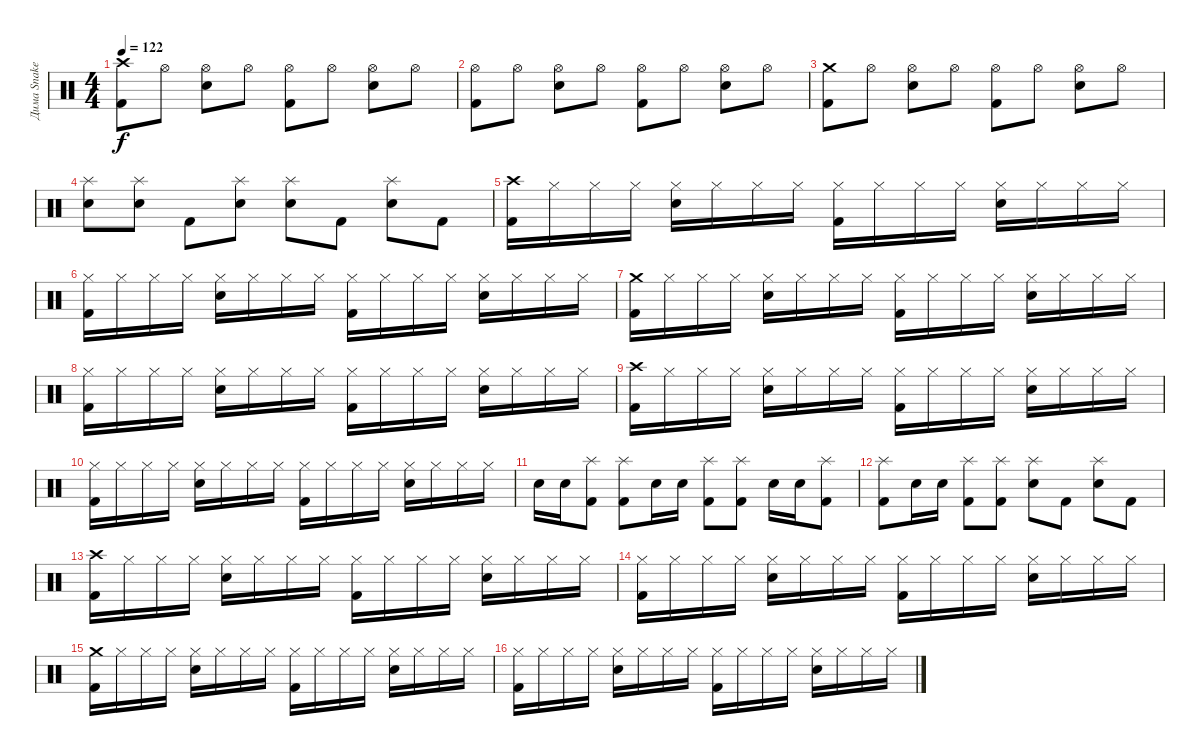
\track ("Дима Snake Хакимов" "Дима Snake") {instrument percussion}
\staff {score}
\articulation defaults
\ts (4 4)
\tempo 122
\clef neutral
\ks c
("Crash high (hit)" "Kick (hit) 2").8{dy f} "Hi-Hat (open)".8 ("Hi-Hat (open)" "Snare (hit) 2").8 "Hi-Hat (open)".8 ("Hi-Hat (open)" "Kick (hit) 2").8 "Hi-Hat (open)".8 ("Hi-Hat (open)" "Snare (hit) 2").8 "Hi-Hat (open)".8 |
("Hi-Hat (open)" "Kick (hit) 2").8 "Hi-Hat (open)".8 ("Hi-Hat (open)" "Snare (hit) 2").8 "Hi-Hat (open)".8 ("Hi-Hat (open)" "Kick (hit) 2").8 "Hi-Hat (open)".8 ("Hi-Hat (open)" "Snare (hit) 2").8 "Hi-Hat (open)".8 |
("Crash medium (hit)" "Kick (hit) 2").8 "Hi-Hat (open)".8 ("Hi-Hat (open)" "Snare (hit) 2").8 "Hi-Hat (open)".8 ("Hi-Hat (open)" "Kick (hit) 2").8 "Hi-Hat (open)".8 ("Hi-Hat (open)" "Snare (hit) 2").8 "Hi-Hat (open)".8 |
("Splash (hit)" "Snare (hit) 2").8 ("Splash (hit)" "Snare (hit) 2").8 "Kick (hit) 2".8 ("Splash (hit)" "Snare (hit) 2").8 ("Splash (hit)" "Snare (hit) 2").8 "Kick (hit) 2".8 ("Splash (hit)" "Snare (hit) 2").8 "Kick (hit) 2".8 |
("Crash high (hit)" "Kick (hit) 2").16 "Hi-Hat (closed)".16 "Hi-Hat (closed)".16 "Hi-Hat (closed)".16 ("Hi-Hat (closed)" "Snare (hit) 2").16 "Hi-Hat (closed)".16 "Hi-Hat (closed)".16 "Hi-Hat (closed)".16 ("Hi-Hat (closed)" "Kick (hit) 2").16 "Hi-Hat (closed)".16 "Hi-Hat (closed)".16 "Hi-Hat (closed)".16 ("Hi-Hat (closed)" "Snare (hit) 2").16 "Hi-Hat (closed)".16 "Hi-Hat (closed)".16 "Hi-Hat (closed)".16 |
("Hi-Hat (closed)" "Kick (hit) 2").16 "Hi-Hat (closed)".16 "Hi-Hat (closed)".16 "Hi-Hat (closed)".16 ("Hi-Hat (closed)" "Snare (hit) 2").16 "Hi-Hat (closed)".16 "Hi-Hat (closed)".16 "Hi-Hat (closed)".16 ("Hi-Hat (closed)" "Kick (hit) 2").16 "Hi-Hat (closed)".16 "Hi-Hat (closed)".16 "Hi-Hat (closed)".16 ("Hi-Hat (closed)" "Snare (hit) 2").16 "Hi-Hat (closed)".16 "Hi-Hat (closed)".16 "Hi-Hat (closed)".16 |
("Crash medium (hit)" "Kick (hit) 2").16 "Hi-Hat (closed)".16 "Hi-Hat (closed)".16 "Hi-Hat (closed)".16 ("Hi-Hat (closed)" "Snare (hit) 2").16 "Hi-Hat (closed)".16 "Hi-Hat (closed)".16 "Hi-Hat (closed)".16 ("Hi-Hat (closed)" "Kick (hit) 2").16 "Hi-Hat (closed)".16 "Hi-Hat (closed)".16 "Hi-Hat (closed)".16 ("Hi-Hat (closed)" "Snare (hit) 2").16 "Hi-Hat (closed)".16 "Hi-Hat (closed)".16 "Hi-Hat (closed)".16 |
("Hi-Hat (closed)" "Kick (hit) 2").16 "Hi-Hat (closed)".16 "Hi-Hat (closed)".16 "Hi-Hat (closed)".16 ("Hi-Hat (closed)" "Snare (hit) 2").16 "Hi-Hat (closed)".16 "Hi-Hat (closed)".16 "Hi-Hat (closed)".16 ("Hi-Hat (closed)" "Kick (hit) 2").16 "Hi-Hat (closed)".16 "Hi-Hat (closed)".16 "Hi-Hat (closed)".16 ("Hi-Hat (closed)" "Snare (hit) 2").16 "Hi-Hat (closed)".16 "Hi-Hat (closed)".16 "Hi-Hat (closed)".16 |
("Crash high (hit)" "Kick (hit) 2").16 "Hi-Hat (closed)".16 "Hi-Hat (closed)".16 "Hi-Hat (closed)".16 ("Hi-Hat (closed)" "Snare (hit) 2").16 "Hi-Hat (closed)".16 "Hi-Hat (closed)".16 "Hi-Hat (closed)".16 ("Hi-Hat (closed)" "Kick (hit) 2").16 "Hi-Hat (closed)".16 "Hi-Hat (closed)".16 "Hi-Hat (closed)".16 ("Hi-Hat (closed)" "Snare (hit) 2").16 "Hi-Hat (closed)".16 "Hi-Hat (closed)".16 "Hi-Hat (closed)".16 |
("Hi-Hat (closed)" "Kick (hit) 2").16 "Hi-Hat (closed)".16 "Hi-Hat (closed)".16 "Hi-Hat (closed)".16 ("Hi-Hat (closed)" "Snare (hit) 2").16 "Hi-Hat (closed)".16 "Hi-Hat (closed)".16 "Hi-Hat (closed)".16 ("Hi-Hat (closed)" "Kick (hit) 2").16 "Hi-Hat (closed)".16 "Hi-Hat (closed)".16 "Hi-Hat (closed)".16 ("Hi-Hat (closed)" "Snare (hit) 2").16 "Hi-Hat (closed)".16 "Hi-Hat (closed)".16 "Hi-Hat (closed)".16 |
"Snare (hit) 2".16 "Snare (hit) 2".16 ("Splash (hit)" "Kick (hit) 2").8 ("Splash (hit)" "Kick (hit) 2").8 "Snare (hit) 2".16 "Snare (hit) 2".16 ("Splash (hit)" "Kick (hit) 2").8 ("Splash (hit)" "Kick (hit) 2").8 "Snare (hit) 2".16 "Snare (hit) 2".16 ("Splash (hit)" "Kick (hit) 2").8 |
("Splash (hit)" "Kick (hit) 2").8 "Snare (hit) 2".16 "Snare (hit) 2".16 ("Splash (hit)" "Kick (hit) 2").8 ("Splash (hit)" "Kick (hit) 2").8 ("Splash (hit)" "Snare (hit) 2").8 "Kick (hit) 2".8 ("Splash (hit)" "Snare (hit) 2").8 "Kick (hit) 2".8 |
("Crash high (hit)" "Kick (hit) 2").16 "Hi-Hat (closed)".16 "Hi-Hat (closed)".16 "Hi-Hat (closed)".16 ("Hi-Hat (closed)" "Snare (hit) 2").16 "Hi-Hat (closed)".16 "Hi-Hat (closed)".16 "Hi-Hat (closed)".16 ("Hi-Hat (closed)" "Kick (hit) 2").16 "Hi-Hat (closed)".16 "Hi-Hat (closed)".16 "Hi-Hat (closed)".16 ("Hi-Hat (closed)" "Snare (hit) 2").16 "Hi-Hat (closed)".16 "Hi-Hat (closed)".16 "Hi-Hat (closed)".16 |
("Hi-Hat (closed)" "Kick (hit) 2").16 "Hi-Hat (closed)".16 "Hi-Hat (closed)".16 "Hi-Hat (closed)".16 ("Hi-Hat (closed)" "Snare (hit) 2").16 "Hi-Hat (closed)".16 "Hi-Hat (closed)".16 "Hi-Hat (closed)".16 ("Hi-Hat (closed)" "Kick (hit) 2").16 "Hi-Hat (closed)".16 "Hi-Hat (closed)".16 "Hi-Hat (closed)".16 ("Hi-Hat (closed)" "Snare (hit) 2").16 "Hi-Hat (closed)".16 "Hi-Hat (closed)".16 "Hi-Hat (closed)".16 |
("Crash medium (hit)" "Kick (hit) 2").16 "Hi-Hat (closed)".16 "Hi-Hat (closed)".16 "Hi-Hat (closed)".16 ("Hi-Hat (closed)" "Snare (hit) 2").16 "Hi-Hat (closed)".16 "Hi-Hat (closed)".16 "Hi-Hat (closed)".16 ("Hi-Hat (closed)" "Kick (hit) 2").16 "Hi-Hat (closed)".16 "Hi-Hat (closed)".16 "Hi-Hat (closed)".16 ("Hi-Hat (closed)" "Snare (hit) 2").16 "Hi-Hat (closed)".16 "Hi-Hat (closed)".16 "Hi-Hat (closed)".16 |
("Hi-Hat (closed)" "Kick (hit) 2").16 "Hi-Hat (closed)".16 "Hi-Hat (closed)".16 "Hi-Hat (closed)".16 ("Hi-Hat (closed)" "Snare (hit) 2").16 "Hi-Hat (closed)".16 "Hi-Hat (closed)".16 "Hi-Hat (closed)".16 ("Hi-Hat (closed)" "Kick (hit) 2").16 "Hi-Hat (closed)".16 "Hi-Hat (closed)".16 "Hi-Hat (closed)".16 ("Hi-Hat (closed)" "Snare (hit) 2").16 "Hi-Hat (closed)".16 "Hi-Hat (closed)".16 "Hi-Hat (closed)".16
